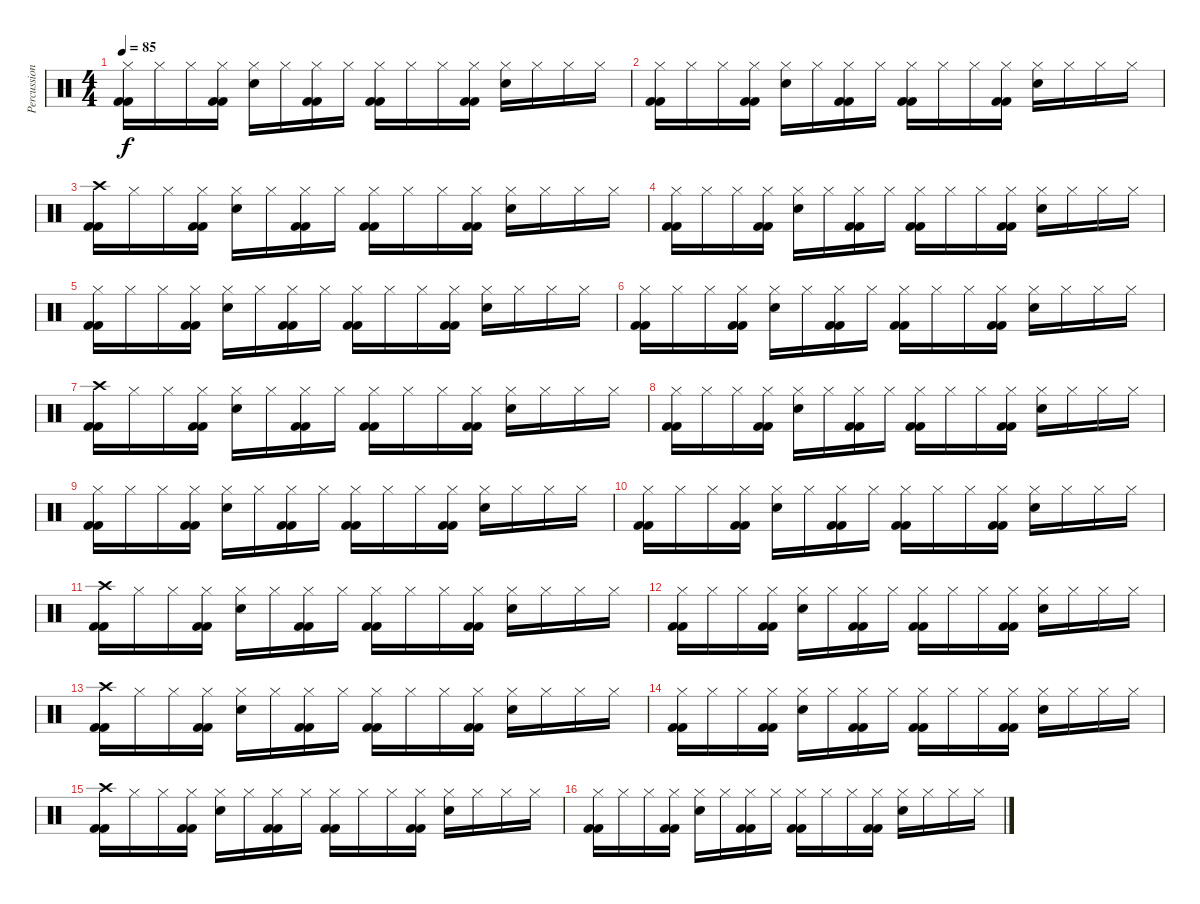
\track ("Percussion" "Percussion") {instrument percussion}
\staff {score}
\articulation defaults
\ts (4 4)
\tempo 85
\clef neutral
\ks c
("Kick (hit) 2" "Hi-Hat (closed)" "Kick (hit) 2").16{dy f} "Hi-Hat (closed)".16 "Hi-Hat (closed)".16 ("Kick (hit) 2" "Hi-Hat (closed)" "Kick (hit) 2").16 ("Hi-Hat (closed)" "Electric Snare (hit)").16 "Hi-Hat (closed)".16 ("Kick (hit) 2" "Hi-Hat (closed)" "Kick (hit) 2").16 "Hi-Hat (closed)".16 ("Kick (hit) 2" "Hi-Hat (closed)" "Kick (hit) 2").16 "Hi-Hat (closed)".16 "Hi-Hat (closed)".16 ("Kick (hit) 2" "Hi-Hat (closed)" "Kick (hit) 2").16 ("Hi-Hat (closed)" "Electric Snare (hit)").16 "Hi-Hat (closed)".16 "Hi-Hat (closed)".16 "Hi-Hat (closed)".16 |
("Kick (hit) 2" "Hi-Hat (closed)" "Kick (hit) 2").16 "Hi-Hat (closed)".16 "Hi-Hat (closed)".16 ("Kick (hit) 2" "Hi-Hat (closed)" "Kick (hit) 2").16 ("Hi-Hat (closed)" "Electric Snare (hit)").16 "Hi-Hat (closed)".16 ("Kick (hit) 2" "Hi-Hat (closed)" "Kick (hit) 2").16 "Hi-Hat (closed)".16 ("Kick (hit) 2" "Hi-Hat (closed)" "Kick (hit) 2").16 "Hi-Hat (closed)".16 "Hi-Hat (closed)".16 ("Kick (hit) 2" "Hi-Hat (closed)" "Kick (hit) 2").16 ("Hi-Hat (closed)" "Electric Snare (hit)").16 "Hi-Hat (closed)".16 "Hi-Hat (closed)".16 "Hi-Hat (closed)".16 |
("Crash high (hit)" "Kick (hit) 2" "Kick (hit) 2").16 "Hi-Hat (closed)".16 "Hi-Hat (closed)".16 ("Kick (hit) 2" "Hi-Hat (closed)" "Kick (hit) 2").16 ("Hi-Hat (closed)" "Electric Snare (hit)").16 "Hi-Hat (closed)".16 ("Kick (hit) 2" "Hi-Hat (closed)" "Kick (hit) 2").16 "Hi-Hat (closed)".16 ("Kick (hit) 2" "Hi-Hat (closed)" "Kick (hit) 2").16 "Hi-Hat (closed)".16 "Hi-Hat (closed)".16 ("Kick (hit) 2" "Hi-Hat (closed)" "Kick (hit) 2").16 ("Hi-Hat (closed)" "Electric Snare (hit)").16 "Hi-Hat (closed)".16 "Hi-Hat (closed)".16 "Hi-Hat (closed)".16 |
("Kick (hit) 2" "Hi-Hat (closed)" "Kick (hit) 2").16 "Hi-Hat (closed)".16 "Hi-Hat (closed)".16 ("Kick (hit) 2" "Hi-Hat (closed)" "Kick (hit) 2").16 ("Hi-Hat (closed)" "Electric Snare (hit)").16 "Hi-Hat (closed)".16 ("Kick (hit) 2" "Hi-Hat (closed)" "Kick (hit) 2").16 "Hi-Hat (closed)".16 ("Kick (hit) 2" "Hi-Hat (closed)" "Kick (hit) 2").16 "Hi-Hat (closed)".16 "Hi-Hat (closed)".16 ("Kick (hit) 2" "Hi-Hat (closed)" "Kick (hit) 2").16 ("Hi-Hat (closed)" "Electric Snare (hit)").16 "Hi-Hat (closed)".16 "Hi-Hat (closed)".16 "Hi-Hat (closed)".16 |
("Kick (hit) 2" "Hi-Hat (closed)" "Kick (hit) 2").16 "Hi-Hat (closed)".16 "Hi-Hat (closed)".16 ("Kick (hit) 2" "Hi-Hat (closed)" "Kick (hit) 2").16 ("Hi-Hat (closed)" "Electric Snare (hit)").16 "Hi-Hat (closed)".16 ("Kick (hit) 2" "Hi-Hat (closed)" "Kick (hit) 2").16 "Hi-Hat (closed)".16 ("Kick (hit) 2" "Hi-Hat (closed)" "Kick (hit) 2").16 "Hi-Hat (closed)".16 "Hi-Hat (closed)".16 ("Kick (hit) 2" "Hi-Hat (closed)" "Kick (hit) 2").16 ("Hi-Hat (closed)" "Electric Snare (hit)").16 "Hi-Hat (closed)".16 "Hi-Hat (closed)".16 "Hi-Hat (closed)".16 |
("Kick (hit) 2" "Hi-Hat (closed)" "Kick (hit) 2").16 "Hi-Hat (closed)".16 "Hi-Hat (closed)".16 ("Kick (hit) 2" "Hi-Hat (closed)" "Kick (hit) 2").16 ("Hi-Hat (closed)" "Electric Snare (hit)").16 "Hi-Hat (closed)".16 ("Kick (hit) 2" "Hi-Hat (closed)" "Kick (hit) 2").16 "Hi-Hat (closed)".16 ("Kick (hit) 2" "Hi-Hat (closed)" "Kick (hit) 2").16 "Hi-Hat (closed)".16 "Hi-Hat (closed)".16 ("Kick (hit) 2" "Hi-Hat (closed)" "Kick (hit) 2").16 ("Hi-Hat (closed)" "Electric Snare (hit)").16 "Hi-Hat (closed)".16 "Hi-Hat (closed)".16 "Hi-Hat (closed)".16 |
("Crash high (hit)" "Kick (hit) 2" "Kick (hit) 2").16 "Hi-Hat (closed)".16 "Hi-Hat (closed)".16 ("Kick (hit) 2" "Hi-Hat (closed)" "Kick (hit) 2").16 ("Hi-Hat (closed)" "Electric Snare (hit)").16 "Hi-Hat (closed)".16 ("Kick (hit) 2" "Hi-Hat (closed)" "Kick (hit) 2").16 "Hi-Hat (closed)".16 ("Kick (hit) 2" "Hi-Hat (closed)" "Kick (hit) 2").16 "Hi-Hat (closed)".16 "Hi-Hat (closed)".16 ("Kick (hit) 2" "Hi-Hat (closed)" "Kick (hit) 2").16 ("Hi-Hat (closed)" "Electric Snare (hit)").16 "Hi-Hat (closed)".16 "Hi-Hat (closed)".16 "Hi-Hat (closed)".16 |
("Kick (hit) 2" "Hi-Hat (closed)" "Kick (hit) 2").16 "Hi-Hat (closed)".16 "Hi-Hat (closed)".16 ("Kick (hit) 2" "Hi-Hat (closed)" "Kick (hit) 2").16 ("Hi-Hat (closed)" "Electric Snare (hit)").16 "Hi-Hat (closed)".16 ("Kick (hit) 2" "Hi-Hat (closed)" "Kick (hit) 2").16 "Hi-Hat (closed)".16 ("Kick (hit) 2" "Hi-Hat (closed)" "Kick (hit) 2").16 "Hi-Hat (closed)".16 "Hi-Hat (closed)".16 ("Kick (hit) 2" "Hi-Hat (closed)" "Kick (hit) 2").16 ("Hi-Hat (closed)" "Electric Snare (hit)").16 "Hi-Hat (closed)".16 "Hi-Hat (closed)".16 "Hi-Hat (closed)".16 |
("Kick (hit) 2" "Hi-Hat (closed)" "Kick (hit) 2").16 "Hi-Hat (closed)".16 "Hi-Hat (closed)".16 ("Kick (hit) 2" "Hi-Hat (closed)" "Kick (hit) 2").16 ("Hi-Hat (closed)" "Electric Snare (hit)").16 "Hi-Hat (closed)".16 ("Kick (hit) 2" "Hi-Hat (closed)" "Kick (hit) 2").16 "Hi-Hat (closed)".16 ("Kick (hit) 2" "Hi-Hat (closed)" "Kick (hit) 2").16 "Hi-Hat (closed)".16 "Hi-Hat (closed)".16 ("Kick (hit) 2" "Hi-Hat (closed)" "Kick (hit) 2").16 ("Hi-Hat (closed)" "Electric Snare (hit)").16 "Hi-Hat (closed)".16 "Hi-Hat (closed)".16 "Hi-Hat (closed)".16 |
("Kick (hit) 2" "Hi-Hat (closed)" "Kick (hit) 2").16 "Hi-Hat (closed)".16 "Hi-Hat (closed)".16 ("Kick (hit) 2" "Hi-Hat (closed)" "Kick (hit) 2").16 ("Hi-Hat (closed)" "Electric Snare (hit)").16 "Hi-Hat (closed)".16 ("Kick (hit) 2" "Hi-Hat (closed)" "Kick (hit) 2").16 "Hi-Hat (closed)".16 ("Kick (hit) 2" "Hi-Hat (closed)" "Kick (hit) 2").16 "Hi-Hat (closed)".16 "Hi-Hat (closed)".16 ("Kick (hit) 2" "Hi-Hat (closed)" "Kick (hit) 2").16 ("Hi-Hat (closed)" "Electric Snare (hit)").16 "Hi-Hat (closed)".16 "Hi-Hat (closed)".16 "Hi-Hat (closed)".16 |
("Crash high (hit)" "Kick (hit) 2" "Kick (hit) 2").16 "Hi-Hat (closed)".16 "Hi-Hat (closed)".16 ("Kick (hit) 2" "Hi-Hat (closed)" "Kick (hit) 2").16 ("Hi-Hat (closed)" "Electric Snare (hit)").16 "Hi-Hat (closed)".16 ("Kick (hit) 2" "Hi-Hat (closed)" "Kick (hit) 2").16 "Hi-Hat (closed)".16 ("Kick (hit) 2" "Hi-Hat (closed)" "Kick (hit) 2").16 "Hi-Hat (closed)".16 "Hi-Hat (closed)".16 ("Kick (hit) 2" "Hi-Hat (closed)" "Kick (hit) 2").16 ("Hi-Hat (closed)" "Electric Snare (hit)").16 "Hi-Hat (closed)".16 "Hi-Hat (closed)".16 "Hi-Hat (closed)".16 |
("Kick (hit) 2" "Hi-Hat (closed)" "Kick (hit) 2").16 "Hi-Hat (closed)".16 "Hi-Hat (closed)".16 ("Kick (hit) 2" "Hi-Hat (closed)" "Kick (hit) 2").16 ("Hi-Hat (closed)" "Electric Snare (hit)").16 "Hi-Hat (closed)".16 ("Kick (hit) 2" "Hi-Hat (closed)" "Kick (hit) 2").16 "Hi-Hat (closed)".16 ("Kick (hit) 2" "Hi-Hat (closed)" "Kick (hit) 2").16 "Hi-Hat (closed)".16 "Hi-Hat (closed)".16 ("Kick (hit) 2" "Hi-Hat (closed)" "Kick (hit) 2").16 ("Hi-Hat (closed)" "Electric Snare (hit)").16 "Hi-Hat (closed)".16 "Hi-Hat (closed)".16 "Hi-Hat (closed)".16 |
("Crash high (hit)" "Kick (hit) 2" "Kick (hit) 2").16 "Hi-Hat (closed)".16 "Hi-Hat (closed)".16 ("Kick (hit) 2" "Hi-Hat (closed)" "Kick (hit) 2").16 ("Hi-Hat (closed)" "Electric Snare (hit)").16 "Hi-Hat (closed)".16 ("Kick (hit) 2" "Hi-Hat (closed)" "Kick (hit) 2").16 "Hi-Hat (closed)".16 ("Kick (hit) 2" "Hi-Hat (closed)" "Kick (hit) 2").16 "Hi-Hat (closed)".16 "Hi-Hat (closed)".16 ("Kick (hit) 2" "Hi-Hat (closed)" "Kick (hit) 2").16 ("Hi-Hat (closed)" "Electric Snare (hit)").16 "Hi-Hat (closed)".16 "Hi-Hat (closed)".16 "Hi-Hat (closed)".16 |
("Kick (hit) 2" "Hi-Hat (closed)" "Kick (hit) 2").16 "Hi-Hat (closed)".16 "Hi-Hat (closed)".16 ("Kick (hit) 2" "Hi-Hat (closed)" "Kick (hit) 2").16 ("Hi-Hat (closed)" "Electric Snare (hit)").16 "Hi-Hat (closed)".16 ("Kick (hit) 2" "Hi-Hat (closed)" "Kick (hit) 2").16 "Hi-Hat (closed)".16 ("Kick (hit) 2" "Hi-Hat (closed)" "Kick (hit) 2").16 "Hi-Hat (closed)".16 "Hi-Hat (closed)".16 ("Kick (hit) 2" "Hi-Hat (closed)" "Kick (hit) 2").16 ("Hi-Hat (closed)" "Electric Snare (hit)").16 "Hi-Hat (closed)".16 "Hi-Hat (closed)".16 "Hi-Hat (closed)".16 |
("Crash high (hit)" "Kick (hit) 2" "Kick (hit) 2").16 "Hi-Hat (closed)".16 "Hi-Hat (closed)".16 ("Kick (hit) 2" "Hi-Hat (closed)" "Kick (hit) 2").16 ("Hi-Hat (closed)" "Electric Snare (hit)").16 "Hi-Hat (closed)".16 ("Kick (hit) 2" "Hi-Hat (closed)" "Kick (hit) 2").16 "Hi-Hat (closed)".16 ("Kick (hit) 2" "Hi-Hat (closed)" "Kick (hit) 2").16 "Hi-Hat (closed)".16 "Hi-Hat (closed)".16 ("Kick (hit) 2" "Hi-Hat (closed)" "Kick (hit) 2").16 ("Hi-Hat (closed)" "Electric Snare (hit)").16 "Hi-Hat (closed)".16 "Hi-Hat (closed)".16 "Hi-Hat (closed)".16 |
("Kick (hit) 2" "Hi-Hat (closed)" "Kick (hit) 2").16 "Hi-Hat (closed)".16 "Hi-Hat (closed)".16 ("Kick (hit) 2" "Hi-Hat (closed)" "Kick (hit) 2").16 ("Hi-Hat (closed)" "Electric Snare (hit)").16 "Hi-Hat (closed)".16 ("Kick (hit) 2" "Hi-Hat (closed)" "Kick (hit) 2").16 "Hi-Hat (closed)".16 ("Kick (hit) 2" "Hi-Hat (closed)" "Kick (hit) 2").16 "Hi-Hat (closed)".16 "Hi-Hat (closed)".16 ("Kick (hit) 2" "Hi-Hat (closed)" "Kick (hit) 2").16 ("Hi-Hat (closed)" "Electric Snare (hit)").16 "Hi-Hat (closed)".16 "Hi-Hat (closed)".16 "Hi-Hat (closed)".16
